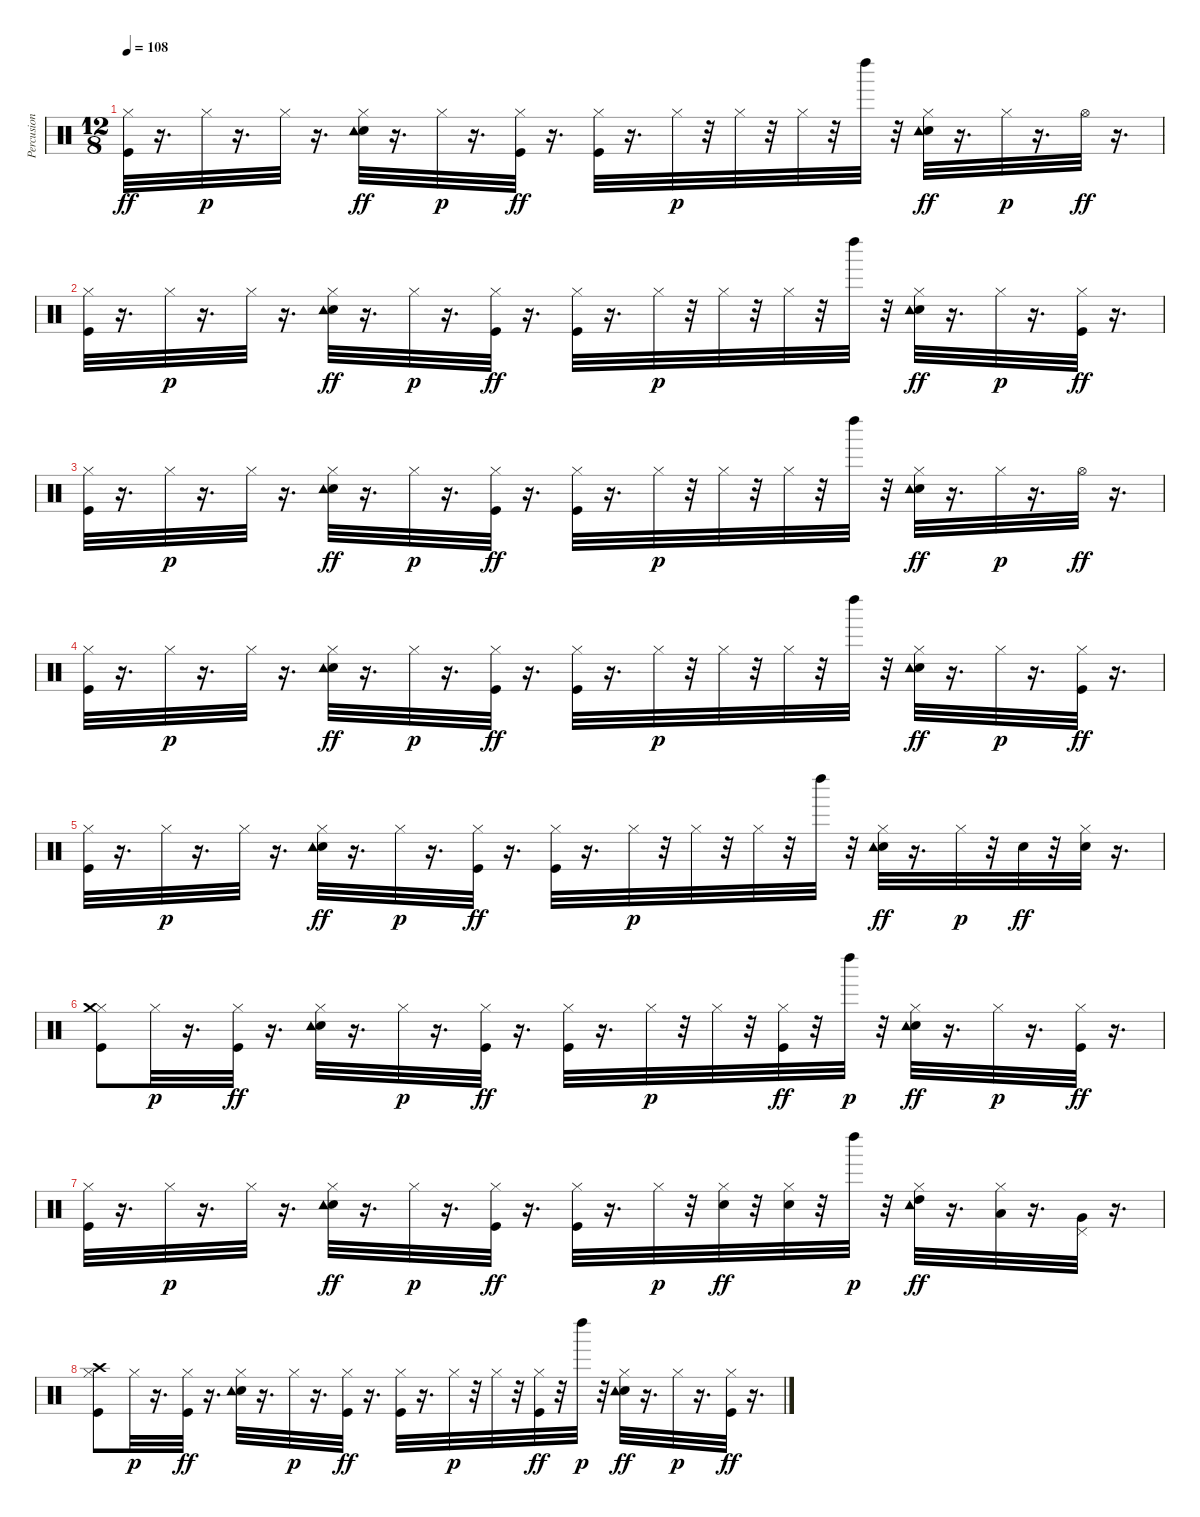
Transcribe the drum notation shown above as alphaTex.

\track ("Percusion (Matt)" "Percusion ") {instrument percussion}
\staff {score}
\articulation defaults
\ts (12 8)
\tempo 108
\clef neutral
\ks c
("Hi-Hat (closed)" "Kick (hit)").32{dy ff} r.16{d} "Hi-Hat (closed)".32{dy p} r.16{d} "Hi-Hat (closed)".32 r.16{d} ("Hi-Hat (closed)" "Electric Snare (hit)" "Tambourine (hit)").32{dy ff} r.16{d} "Hi-Hat (closed)".32{dy p} r.16{d} ("Hi-Hat (closed)" "Kick (hit)").32{dy ff} r.16{d} ("Hi-Hat (closed)" "Kick (hit)").32 r.16{d} "Hi-Hat (closed)".32{dy p} r.32 "Hi-Hat (closed)".32 r.32 "Hi-Hat (closed)".32 r.32 "Left Maraca (hit)".32 r.32 ("Hi-Hat (closed)" "Electric Snare (hit)" "Tambourine (hit)").32{dy ff} r.16{d} "Hi-Hat (closed)".32{dy p} r.16{d} "Hi-Hat (open)".32{dy ff} r.16{d} |
("Hi-Hat (closed)" "Kick (hit)").32 r.16{d} "Hi-Hat (closed)".32{dy p} r.16{d} "Hi-Hat (closed)".32 r.16{d} ("Hi-Hat (closed)" "Electric Snare (hit)" "Tambourine (hit)").32{dy ff} r.16{d} "Hi-Hat (closed)".32{dy p} r.16{d} ("Hi-Hat (closed)" "Kick (hit)").32{dy ff} r.16{d} ("Hi-Hat (closed)" "Kick (hit)").32 r.16{d} "Hi-Hat (closed)".32{dy p} r.32 "Hi-Hat (closed)".32 r.32 "Hi-Hat (closed)".32 r.32 "Left Maraca (hit)".32 r.32 ("Hi-Hat (closed)" "Electric Snare (hit)" "Tambourine (hit)").32{dy ff} r.16{d} "Hi-Hat (closed)".32{dy p} r.16{d} ("Hi-Hat (closed)" "Kick (hit)").32{dy ff} r.16{d} |
("Hi-Hat (closed)" "Kick (hit)").32 r.16{d} "Hi-Hat (closed)".32{dy p} r.16{d} "Hi-Hat (closed)".32 r.16{d} ("Hi-Hat (closed)" "Electric Snare (hit)" "Tambourine (hit)").32{dy ff} r.16{d} "Hi-Hat (closed)".32{dy p} r.16{d} ("Hi-Hat (closed)" "Kick (hit)").32{dy ff} r.16{d} ("Hi-Hat (closed)" "Kick (hit)").32 r.16{d} "Hi-Hat (closed)".32{dy p} r.32 "Hi-Hat (closed)".32 r.32 "Hi-Hat (closed)".32 r.32 "Left Maraca (hit)".32 r.32 ("Hi-Hat (closed)" "Electric Snare (hit)" "Tambourine (hit)").32{dy ff} r.16{d} "Hi-Hat (closed)".32{dy p} r.16{d} "Hi-Hat (open)".32{dy ff} r.16{d} |
("Hi-Hat (closed)" "Kick (hit)").32 r.16{d} "Hi-Hat (closed)".32{dy p} r.16{d} "Hi-Hat (closed)".32 r.16{d} ("Hi-Hat (closed)" "Electric Snare (hit)" "Tambourine (hit)").32{dy ff} r.16{d} "Hi-Hat (closed)".32{dy p} r.16{d} ("Hi-Hat (closed)" "Kick (hit)").32{dy ff} r.16{d} ("Hi-Hat (closed)" "Kick (hit)").32 r.16{d} "Hi-Hat (closed)".32{dy p} r.32 "Hi-Hat (closed)".32 r.32 "Hi-Hat (closed)".32 r.32 "Left Maraca (hit)".32 r.32 ("Hi-Hat (closed)" "Electric Snare (hit)" "Tambourine (hit)").32{dy ff} r.16{d} "Hi-Hat (closed)".32{dy p} r.16{d} ("Hi-Hat (closed)" "Kick (hit)").32{dy ff} r.16{d} |
("Hi-Hat (closed)" "Kick (hit)").32 r.16{d} "Hi-Hat (closed)".32{dy p} r.16{d} "Hi-Hat (closed)".32 r.16{d} ("Hi-Hat (closed)" "Electric Snare (hit)" "Tambourine (hit)").32{dy ff} r.16{d} "Hi-Hat (closed)".32{dy p} r.16{d} ("Hi-Hat (closed)" "Kick (hit)").32{dy ff} r.16{d} ("Hi-Hat (closed)" "Kick (hit)").32 r.16{d} "Hi-Hat (closed)".32{dy p} r.32 "Hi-Hat (closed)".32 r.32 "Hi-Hat (closed)".32 r.32 "Left Maraca (hit)".32 r.32 ("Hi-Hat (closed)" "Electric Snare (hit)" "Tambourine (hit)").32{dy ff} r.16{d} "Hi-Hat (closed)".32{dy p} r.32 "Snare (hit) 2".32{dy ff} r.32 ("Hi-Hat (closed)" "Electric Snare (hit)").32 r.16{d} |
("Hi-Hat (closed)" "Kick (hit)" "Crash medium (hit)").8 "Hi-Hat (closed)".32{dy p} r.16{d} ("Hi-Hat (closed)" "Kick (hit)").32{dy ff} r.16{d} ("Hi-Hat (closed)" "Electric Snare (hit)" "Tambourine (hit)").32 r.16{d} "Hi-Hat (closed)".32{dy p} r.16{d} ("Hi-Hat (closed)" "Kick (hit)").32{dy ff} r.16{d} ("Hi-Hat (closed)" "Kick (hit)").32 r.16{d} "Hi-Hat (closed)".32{dy p} r.32 "Hi-Hat (closed)".32 r.32 ("Hi-Hat (closed)" "Kick (hit)").32{dy ff} r.32 "Left Maraca (hit)".32{dy p} r.32 ("Hi-Hat (closed)" "Electric Snare (hit)" "Tambourine (hit)").32{dy ff} r.16{d} "Hi-Hat (closed)".32{dy p} r.16{d} ("Hi-Hat (closed)" "Kick (hit)").32{dy ff} r.16{d} |
("Hi-Hat (closed)" "Kick (hit)").32 r.16{d} "Hi-Hat (closed)".32{dy p} r.16{d} "Hi-Hat (closed)".32 r.16{d} ("Hi-Hat (closed)" "Electric Snare (hit)" "Tambourine (hit)").32{dy ff} r.16{d} "Hi-Hat (closed)".32{dy p} r.16{d} ("Hi-Hat (closed)" "Kick (hit)").32{dy ff} r.16{d} ("Hi-Hat (closed)" "Kick (hit)").32 r.16{d} "Hi-Hat (closed)".32{dy p} r.32 ("Hi-Hat (closed)" "Electric Snare (hit)").32{dy ff} r.32 ("Hi-Hat (closed)" "Electric Snare (hit)").32 r.32 "Left Maraca (hit)".32{dy p} r.32 ("Hi-Hat (closed)" "Tambourine (hit)" "High Tom (hit)").32{dy ff} r.16{d} ("Hi-Hat (closed)" "Low Tom (hit)").32 r.16{d} ("Very Low Tom (hit)" "Pedal Hi-Hat (hit)").32 r.16{d} |
("Hi-Hat (closed)" "Kick (hit)" "Crash high (hit)").8 "Hi-Hat (closed)".32{dy p} r.16{d} ("Hi-Hat (closed)" "Kick (hit)").32{dy ff} r.16{d} ("Hi-Hat (closed)" "Electric Snare (hit)" "Tambourine (hit)").32 r.16{d} "Hi-Hat (closed)".32{dy p} r.16{d} ("Hi-Hat (closed)" "Kick (hit)").32{dy ff} r.16{d} ("Hi-Hat (closed)" "Kick (hit)").32 r.16{d} "Hi-Hat (closed)".32{dy p} r.32 "Hi-Hat (closed)".32 r.32 ("Hi-Hat (closed)" "Kick (hit)").32{dy ff} r.32 "Left Maraca (hit)".32{dy p} r.32 ("Hi-Hat (closed)" "Electric Snare (hit)" "Tambourine (hit)").32{dy ff} r.16{d} "Hi-Hat (closed)".32{dy p} r.16{d} ("Hi-Hat (closed)" "Kick (hit)").32{dy ff} r.16{d}
